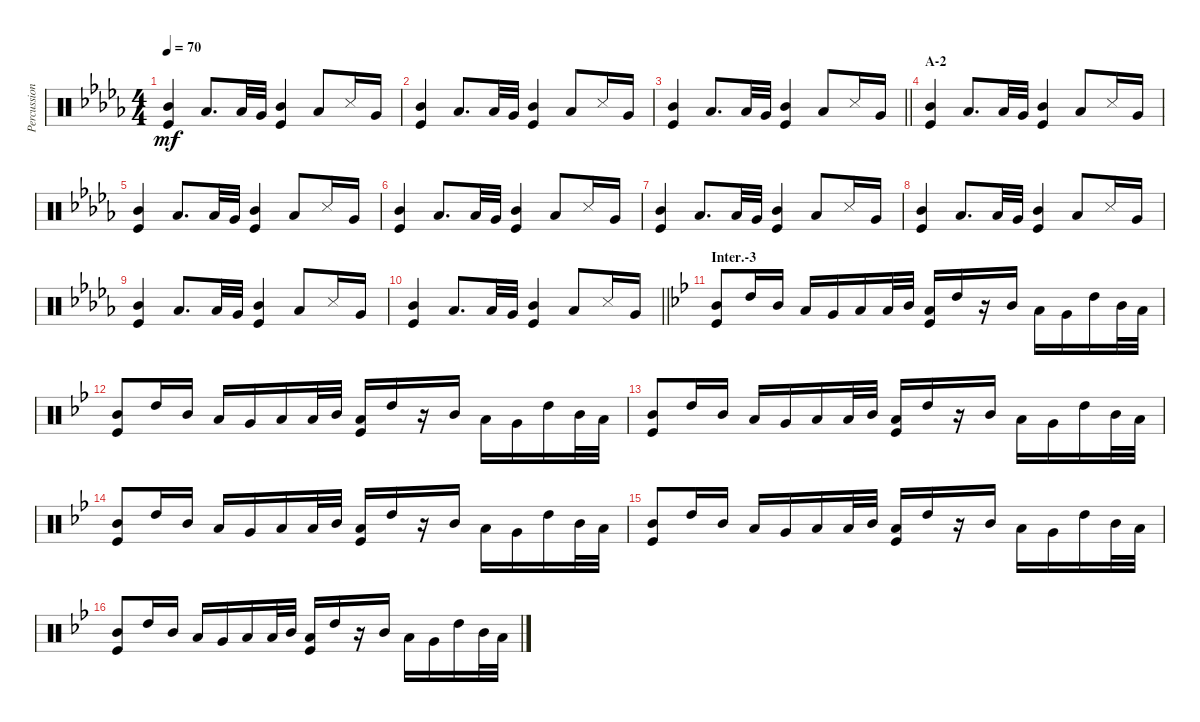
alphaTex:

\track ("Percussion (Tainaka Ritsu)" "Percussion") {instrument percussion}
\staff {score}
\articulation defaults
\ts (4 4)
\tempo 70
\clef neutral
\ks db
("Mid Tom (hit)" "Kick (hit)").4{dy mf} "Low Tom (hit)".8{d} "Low Floor Tom (hit)".32 "Very Low Tom (hit)".32 ("Mid Tom (hit)" "Kick (hit)").4 "Low Tom (hit)".8 "Snare (side stick) 3".16 "Very Low Tom (hit)".16 |
("Mid Tom (hit)" "Kick (hit)").4 "Low Tom (hit)".8{d} "Low Floor Tom (hit)".32 "Very Low Tom (hit)".32 ("Mid Tom (hit)" "Kick (hit)").4 "Low Tom (hit)".8 "Snare (side stick) 3".16 "Very Low Tom (hit)".16 |
\barLineRight lightlight
("Mid Tom (hit)" "Kick (hit)").4 "Low Tom (hit)".8{d} "Low Floor Tom (hit)".32 "Very Low Tom (hit)".32 ("Mid Tom (hit)" "Kick (hit)").4 "Low Tom (hit)".8 "Snare (side stick) 3".16 "Very Low Tom (hit)".16 |
\section ("" "A-2")
("Mid Tom (hit)" "Kick (hit)").4 "Low Tom (hit)".8{d} "Low Floor Tom (hit)".32 "Very Low Tom (hit)".32 ("Mid Tom (hit)" "Kick (hit)").4 "Low Tom (hit)".8 "Snare (side stick) 3".16 "Very Low Tom (hit)".16 |
("Mid Tom (hit)" "Kick (hit)").4 "Low Tom (hit)".8{d} "Low Floor Tom (hit)".32 "Very Low Tom (hit)".32 ("Mid Tom (hit)" "Kick (hit)").4 "Low Tom (hit)".8 "Snare (side stick) 3".16 "Very Low Tom (hit)".16 |
("Mid Tom (hit)" "Kick (hit)").4 "Low Tom (hit)".8{d} "Low Floor Tom (hit)".32 "Very Low Tom (hit)".32 ("Mid Tom (hit)" "Kick (hit)").4 "Low Tom (hit)".8 "Snare (side stick) 3".16 "Very Low Tom (hit)".16 |
("Mid Tom (hit)" "Kick (hit)").4 "Low Tom (hit)".8{d} "Low Floor Tom (hit)".32 "Very Low Tom (hit)".32 ("Mid Tom (hit)" "Kick (hit)").4 "Low Tom (hit)".8 "Snare (side stick) 3".16 "Very Low Tom (hit)".16 |
("Mid Tom (hit)" "Kick (hit)").4 "Low Tom (hit)".8{d} "Low Floor Tom (hit)".32 "Very Low Tom (hit)".32 ("Mid Tom (hit)" "Kick (hit)").4 "Low Tom (hit)".8 "Snare (side stick) 3".16 "Very Low Tom (hit)".16 |
("Mid Tom (hit)" "Kick (hit)").4 "Low Tom (hit)".8{d} "Low Floor Tom (hit)".32 "Very Low Tom (hit)".32 ("Mid Tom (hit)" "Kick (hit)").4 "Low Tom (hit)".8 "Snare (side stick) 3".16 "Very Low Tom (hit)".16 |
\barLineRight lightlight
("Mid Tom (hit)" "Kick (hit)").4 "Low Tom (hit)".8{d} "Low Floor Tom (hit)".32 "Very Low Tom (hit)".32 ("Mid Tom (hit)" "Kick (hit)").4 "Low Tom (hit)".8 "Snare (side stick) 3".16 "Very Low Tom (hit)".16 |
\section ("" "Inter.-3")
\ks bb
("Mid Tom (hit)" "Kick (hit)").8 "High Tom (hit)".16 "Mid Tom (hit)".16 "Low Tom (hit)".16 "Very Low Tom (hit)".16 "Low Tom (hit)".16 "Low Tom (hit)".32 "Mid Tom (hit)".32 ("Low Tom (hit)" "Kick (hit)").16 "High Tom (hit)".16 r.16 "Mid Tom (hit)".16 "Low Tom (hit)".16 "Very Low Tom (hit)".16 "High Tom (hit)".16 "Mid Tom (hit)".32 "Low Tom (hit)".32 |
("Mid Tom (hit)" "Kick (hit)").8 "High Tom (hit)".16 "Mid Tom (hit)".16 "Low Tom (hit)".16 "Very Low Tom (hit)".16 "Low Tom (hit)".16 "Low Tom (hit)".32 "Mid Tom (hit)".32 ("Low Tom (hit)" "Kick (hit)").16 "High Tom (hit)".16 r.16 "Mid Tom (hit)".16 "Low Tom (hit)".16 "Very Low Tom (hit)".16 "High Tom (hit)".16 "Mid Tom (hit)".32 "Low Tom (hit)".32 |
("Mid Tom (hit)" "Kick (hit)").8 "High Tom (hit)".16 "Mid Tom (hit)".16 "Low Tom (hit)".16 "Very Low Tom (hit)".16 "Low Tom (hit)".16 "Low Tom (hit)".32 "Mid Tom (hit)".32 ("Low Tom (hit)" "Kick (hit)").16 "High Tom (hit)".16 r.16 "Mid Tom (hit)".16 "Low Tom (hit)".16 "Very Low Tom (hit)".16 "High Tom (hit)".16 "Mid Tom (hit)".32 "Low Tom (hit)".32 |
("Mid Tom (hit)" "Kick (hit)").8 "High Tom (hit)".16 "Mid Tom (hit)".16 "Low Tom (hit)".16 "Very Low Tom (hit)".16 "Low Tom (hit)".16 "Low Tom (hit)".32 "Mid Tom (hit)".32 ("Low Tom (hit)" "Kick (hit)").16 "High Tom (hit)".16 r.16 "Mid Tom (hit)".16 "Low Tom (hit)".16 "Very Low Tom (hit)".16 "High Tom (hit)".16 "Mid Tom (hit)".32 "Low Tom (hit)".32 |
("Mid Tom (hit)" "Kick (hit)").8 "High Tom (hit)".16 "Mid Tom (hit)".16 "Low Tom (hit)".16 "Very Low Tom (hit)".16 "Low Tom (hit)".16 "Low Tom (hit)".32 "Mid Tom (hit)".32 ("Low Tom (hit)" "Kick (hit)").16 "High Tom (hit)".16 r.16 "Mid Tom (hit)".16 "Low Tom (hit)".16 "Very Low Tom (hit)".16 "High Tom (hit)".16 "Mid Tom (hit)".32 "Low Tom (hit)".32 |
("Mid Tom (hit)" "Kick (hit)").8 "High Tom (hit)".16 "Mid Tom (hit)".16 "Low Tom (hit)".16 "Very Low Tom (hit)".16 "Low Tom (hit)".16 "Low Tom (hit)".32 "Mid Tom (hit)".32 ("Low Tom (hit)" "Kick (hit)").16 "High Tom (hit)".16 r.16 "Mid Tom (hit)".16 "Low Tom (hit)".16 "Very Low Tom (hit)".16 "High Tom (hit)".16 "Mid Tom (hit)".32 "Low Tom (hit)".32
